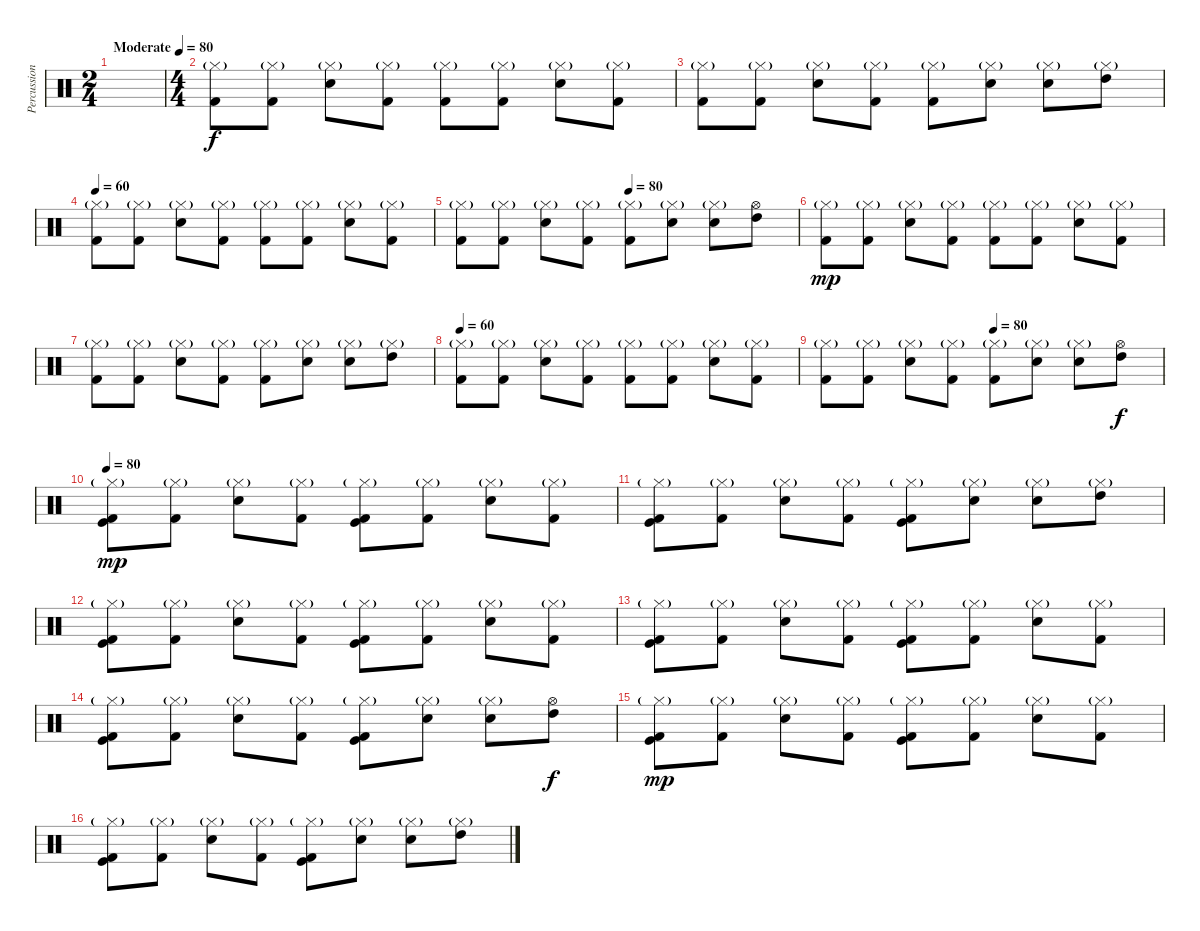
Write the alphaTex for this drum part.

\track ("Percussion" "Percussion") {instrument percussion}
\staff {score}
\articulation defaults
\ts (2 4)
\tempo (80 "Moderate")
\clef neutral
\ks c
|
\ts (4 4)
("Hi-Hat (closed)"{g} "Kick (hit) 2").8 ("Hi-Hat (closed)"{g} "Kick (hit) 2").8 ("Hi-Hat (closed)"{g} "Electric Snare (hit)").8 ("Hi-Hat (closed)"{g} "Kick (hit) 2").8 ("Hi-Hat (closed)"{g} "Kick (hit) 2").8 ("Hi-Hat (closed)"{g} "Kick (hit) 2").8 ("Hi-Hat (closed)"{g} "Electric Snare (hit)").8 ("Hi-Hat (closed)"{g} "Kick (hit) 2").8 |
("Hi-Hat (closed)"{g} "Kick (hit) 2").8 ("Hi-Hat (closed)"{g} "Kick (hit) 2").8 ("Hi-Hat (closed)"{g} "Electric Snare (hit)").8 ("Hi-Hat (closed)"{g} "Kick (hit) 2").8 ("Hi-Hat (closed)"{g} "Kick (hit) 2").8 ("Hi-Hat (closed)"{g} "Electric Snare (hit)").8 ("Hi-Hat (closed)"{g} "Snare (hit) 2").8 ("Hi-Hat (closed)"{g} "High Tom (hit)").8 |
\tempo 60
("Hi-Hat (closed)"{g} "Kick (hit) 2").8 ("Hi-Hat (closed)"{g} "Kick (hit) 2").8 ("Hi-Hat (closed)"{g} "Electric Snare (hit)").8 ("Hi-Hat (closed)"{g} "Kick (hit) 2").8 ("Hi-Hat (closed)"{g} "Kick (hit) 2").8 ("Hi-Hat (closed)"{g} "Kick (hit) 2").8 ("Hi-Hat (closed)"{g} "Electric Snare (hit)").8 ("Hi-Hat (closed)"{g} "Kick (hit) 2").8 |
\tempo (80 0.5)
("Hi-Hat (closed)"{g} "Kick (hit) 2").8 ("Hi-Hat (closed)"{g} "Kick (hit) 2").8 ("Hi-Hat (closed)"{g} "Electric Snare (hit)").8 ("Hi-Hat (closed)"{g} "Kick (hit) 2").8 ("Hi-Hat (closed)"{g} "Kick (hit) 2").8 ("Hi-Hat (closed)"{g} "Electric Snare (hit)").8 ("Hi-Hat (closed)"{g} "Snare (hit) 2").8 ("Hi-Hat (open)" "High Tom (hit)").8{dy f} |
("Hi-Hat (closed)"{g} "Kick (hit) 2").8{dy mp} ("Hi-Hat (closed)"{g} "Kick (hit) 2").8 ("Hi-Hat (closed)"{g} "Electric Snare (hit)").8 ("Hi-Hat (closed)"{g} "Kick (hit) 2").8 ("Hi-Hat (closed)"{g} "Kick (hit) 2").8 ("Hi-Hat (closed)"{g} "Kick (hit) 2").8 ("Hi-Hat (closed)"{g} "Electric Snare (hit)").8 ("Hi-Hat (closed)"{g} "Kick (hit) 2").8 |
("Hi-Hat (closed)"{g} "Kick (hit) 2").8 ("Hi-Hat (closed)"{g} "Kick (hit) 2").8 ("Hi-Hat (closed)"{g} "Electric Snare (hit)").8 ("Hi-Hat (closed)"{g} "Kick (hit) 2").8 ("Hi-Hat (closed)"{g} "Kick (hit) 2").8 ("Hi-Hat (closed)"{g} "Electric Snare (hit)").8 ("Hi-Hat (closed)"{g} "Snare (hit) 2").8 ("Hi-Hat (closed)"{g} "High Tom (hit)").8 |
\tempo 60
("Hi-Hat (closed)"{g} "Kick (hit) 2").8 ("Hi-Hat (closed)"{g} "Kick (hit) 2").8 ("Hi-Hat (closed)"{g} "Electric Snare (hit)").8 ("Hi-Hat (closed)"{g} "Kick (hit) 2").8 ("Hi-Hat (closed)"{g} "Kick (hit) 2").8 ("Hi-Hat (closed)"{g} "Kick (hit) 2").8 ("Hi-Hat (closed)"{g} "Electric Snare (hit)").8 ("Hi-Hat (closed)"{g} "Kick (hit) 2").8 |
\tempo (80 0.5)
("Hi-Hat (closed)"{g} "Kick (hit) 2").8 ("Hi-Hat (closed)"{g} "Kick (hit) 2").8 ("Hi-Hat (closed)"{g} "Electric Snare (hit)").8 ("Hi-Hat (closed)"{g} "Kick (hit) 2").8 ("Hi-Hat (closed)"{g} "Kick (hit) 2").8 ("Hi-Hat (closed)"{g} "Electric Snare (hit)").8 ("Hi-Hat (closed)"{g} "Snare (hit) 2").8 ("Hi-Hat (open)" "High Tom (hit)").8{dy f} |
\tempo 80
("Hi-Hat (closed)"{g} "Kick (hit) 2" "Kick (hit)").8{dy mp} ("Hi-Hat (closed)"{g} "Kick (hit) 2").8 ("Hi-Hat (closed)"{g} "Electric Snare (hit)").8 ("Hi-Hat (closed)"{g} "Kick (hit) 2").8 ("Hi-Hat (closed)"{g} "Kick (hit) 2" "Kick (hit)").8 ("Hi-Hat (closed)"{g} "Kick (hit) 2").8 ("Hi-Hat (closed)"{g} "Electric Snare (hit)").8 ("Hi-Hat (closed)"{g} "Kick (hit) 2").8 |
("Hi-Hat (closed)"{g} "Kick (hit) 2" "Kick (hit)").8 ("Hi-Hat (closed)"{g} "Kick (hit) 2").8 ("Hi-Hat (closed)"{g} "Electric Snare (hit)").8 ("Hi-Hat (closed)"{g} "Kick (hit) 2").8 ("Hi-Hat (closed)"{g} "Kick (hit) 2" "Kick (hit)").8 ("Hi-Hat (closed)"{g} "Electric Snare (hit)").8 ("Hi-Hat (closed)"{g} "Snare (hit) 2").8 ("Hi-Hat (closed)"{g} "High Tom (hit)").8 |
("Hi-Hat (closed)"{g} "Kick (hit) 2" "Kick (hit)").8 ("Hi-Hat (closed)"{g} "Kick (hit) 2").8 ("Hi-Hat (closed)"{g} "Electric Snare (hit)").8 ("Hi-Hat (closed)"{g} "Kick (hit) 2").8 ("Hi-Hat (closed)"{g} "Kick (hit) 2" "Kick (hit)").8 ("Hi-Hat (closed)"{g} "Kick (hit) 2").8 ("Hi-Hat (closed)"{g} "Electric Snare (hit)").8 ("Hi-Hat (closed)"{g} "Kick (hit) 2").8 |
("Hi-Hat (closed)"{g} "Kick (hit) 2" "Kick (hit)").8 ("Hi-Hat (closed)"{g} "Kick (hit) 2").8 ("Hi-Hat (closed)"{g} "Electric Snare (hit)").8 ("Hi-Hat (closed)"{g} "Kick (hit) 2").8 ("Hi-Hat (closed)"{g} "Kick (hit) 2" "Kick (hit)").8 ("Hi-Hat (closed)"{g} "Kick (hit) 2").8 ("Hi-Hat (closed)"{g} "Electric Snare (hit)").8 ("Hi-Hat (closed)"{g} "Kick (hit) 2").8 |
("Hi-Hat (closed)"{g} "Kick (hit) 2" "Kick (hit)").8 ("Hi-Hat (closed)"{g} "Kick (hit) 2").8 ("Hi-Hat (closed)"{g} "Electric Snare (hit)").8 ("Hi-Hat (closed)"{g} "Kick (hit) 2").8 ("Hi-Hat (closed)"{g} "Kick (hit) 2" "Kick (hit)").8 ("Hi-Hat (closed)"{g} "Electric Snare (hit)").8 ("Hi-Hat (closed)"{g} "Snare (hit) 2").8 ("Hi-Hat (open)" "High Tom (hit)").8{dy f} |
("Hi-Hat (closed)"{g} "Kick (hit) 2" "Kick (hit)").8{dy mp} ("Hi-Hat (closed)"{g} "Kick (hit) 2").8 ("Hi-Hat (closed)"{g} "Electric Snare (hit)").8 ("Hi-Hat (closed)"{g} "Kick (hit) 2").8 ("Hi-Hat (closed)"{g} "Kick (hit) 2" "Kick (hit)").8 ("Hi-Hat (closed)"{g} "Kick (hit) 2").8 ("Hi-Hat (closed)"{g} "Electric Snare (hit)").8 ("Hi-Hat (closed)"{g} "Kick (hit) 2").8 |
("Hi-Hat (closed)"{g} "Kick (hit) 2" "Kick (hit)").8 ("Hi-Hat (closed)"{g} "Kick (hit) 2").8 ("Hi-Hat (closed)"{g} "Electric Snare (hit)").8 ("Hi-Hat (closed)"{g} "Kick (hit) 2").8 ("Hi-Hat (closed)"{g} "Kick (hit) 2" "Kick (hit)").8 ("Hi-Hat (closed)"{g} "Electric Snare (hit)").8 ("Hi-Hat (closed)"{g} "Snare (hit) 2").8 ("Hi-Hat (closed)"{g} "High Tom (hit)").8
